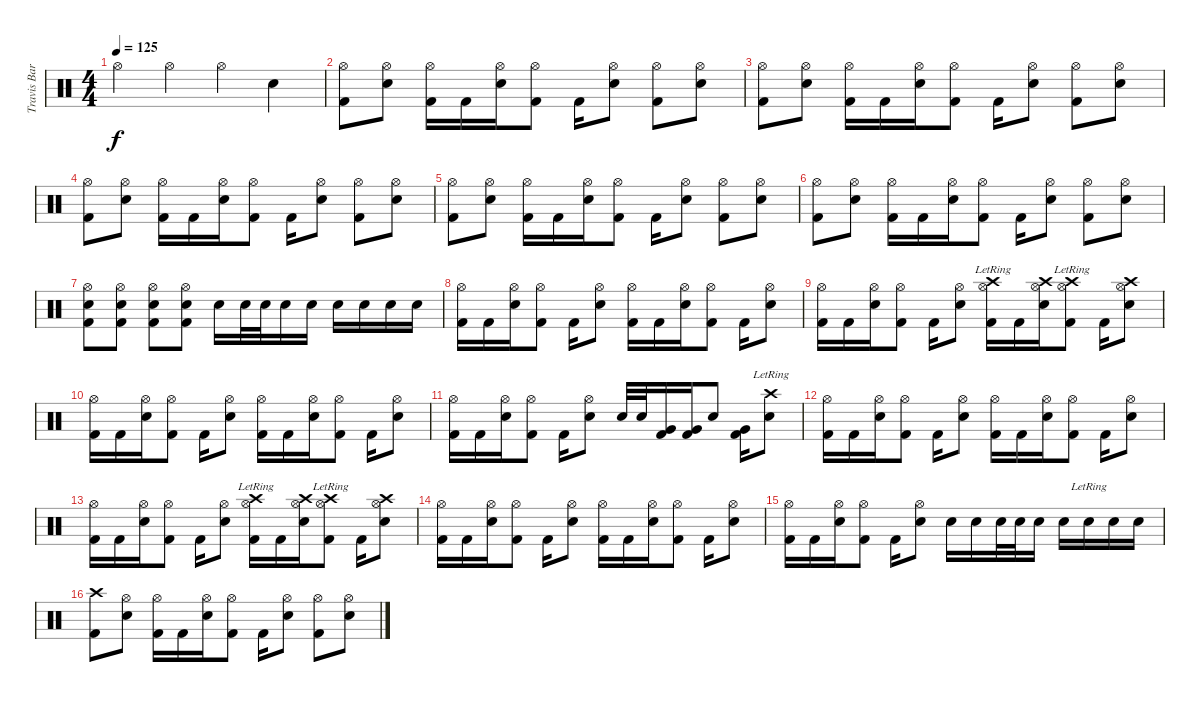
\track ("Travis Barker - Drums" "Travis Bar") {instrument percussion}
\staff {score}
\articulation defaults
\ts (4 4)
\tempo 125
\clef neutral
\ks c "Hi-Hat (open)".4{dy f} "Hi-Hat (open)".4 "Hi-Hat (open)".4 "Electric Snare (hit)".4
|
("Hi-Hat (open)" "Kick (hit) 2").8 ("Hi-Hat (open)" "Electric Snare (hit)").8 ("Hi-Hat (open)" "Kick (hit) 2").16 "Kick (hit) 2".16 ("Hi-Hat (open)" "Electric Snare (hit)").16 ("Hi-Hat (open)" "Kick (hit) 2").8 "Kick (hit) 2".16 ("Hi-Hat (open)" "Electric Snare (hit)").8 ("Hi-Hat (open)" "Kick (hit) 2").8 ("Hi-Hat (open)" "Electric Snare (hit)").8 |
("Hi-Hat (open)" "Kick (hit) 2").8 ("Hi-Hat (open)" "Electric Snare (hit)").8 ("Hi-Hat (open)" "Kick (hit) 2").16 "Kick (hit) 2".16 ("Hi-Hat (open)" "Electric Snare (hit)").16 ("Hi-Hat (open)" "Kick (hit) 2").8 "Kick (hit) 2".16 ("Hi-Hat (open)" "Electric Snare (hit)").8 ("Hi-Hat (open)" "Kick (hit) 2").8 ("Hi-Hat (open)" "Electric Snare (hit)").8 |
("Hi-Hat (open)" "Kick (hit) 2").8 ("Hi-Hat (open)" "Electric Snare (hit)").8 ("Hi-Hat (open)" "Kick (hit) 2").16 "Kick (hit) 2".16 ("Hi-Hat (open)" "Electric Snare (hit)").16 ("Hi-Hat (open)" "Kick (hit) 2").8 "Kick (hit) 2".16 ("Hi-Hat (open)" "Electric Snare (hit)").8 ("Hi-Hat (open)" "Kick (hit) 2").8 ("Hi-Hat (open)" "Electric Snare (hit)").8 |
("Hi-Hat (open)" "Kick (hit) 2").8 ("Hi-Hat (open)" "Electric Snare (hit)").8 ("Hi-Hat (open)" "Kick (hit) 2").16 "Kick (hit) 2".16 ("Hi-Hat (open)" "Electric Snare (hit)").16 ("Hi-Hat (open)" "Kick (hit) 2").8 "Kick (hit) 2".16 ("Hi-Hat (open)" "Electric Snare (hit)").8 ("Hi-Hat (open)" "Kick (hit) 2").8 ("Hi-Hat (open)" "Electric Snare (hit)").8 |
("Hi-Hat (open)" "Kick (hit) 2").8 ("Hi-Hat (open)" "Electric Snare (hit)").8 ("Hi-Hat (open)" "Kick (hit) 2").16 "Kick (hit) 2".16 ("Hi-Hat (open)" "Electric Snare (hit)").16 ("Hi-Hat (open)" "Kick (hit) 2").8 "Kick (hit) 2".16 ("Hi-Hat (open)" "Electric Snare (hit)").8 ("Hi-Hat (open)" "Kick (hit) 2").8 ("Hi-Hat (open)" "Electric Snare (hit)").8 |
("Hi-Hat (open)" "Electric Snare (hit)" "Kick (hit) 2").8 ("Hi-Hat (open)" "Electric Snare (hit)" "Kick (hit) 2").8 ("Hi-Hat (open)" "Electric Snare (hit)" "Kick (hit) 2").8 ("Hi-Hat (open)" "Electric Snare (hit)" "Kick (hit) 2").8 "Electric Snare (hit)".16 "Electric Snare (hit)".32 "Electric Snare (hit)".32 "Electric Snare (hit)".16 "Electric Snare (hit)".16 "Electric Snare (hit)".16 "Electric Snare (hit)".16 "Electric Snare (hit)".16 "Electric Snare (hit)".16 |
("Hi-Hat (open)" "Kick (hit) 2").16 "Kick (hit) 2".16 ("Hi-Hat (open)" "Electric Snare (hit)").16 ("Hi-Hat (open)" "Kick (hit) 2").8 "Kick (hit) 2".16 ("Hi-Hat (open)" "Electric Snare (hit)").8 ("Hi-Hat (open)" "Kick (hit) 2").16 "Kick (hit) 2".16 ("Hi-Hat (open)" "Electric Snare (hit)").16 ("Hi-Hat (open)" "Kick (hit) 2").8 "Kick (hit) 2".16 ("Hi-Hat (open)" "Electric Snare (hit)").8 |
("Hi-Hat (open)" "Kick (hit) 2").16 "Kick (hit) 2".16 ("Hi-Hat (open)" "Electric Snare (hit)").16 ("Hi-Hat (open)" "Kick (hit) 2").8 "Kick (hit) 2".16 ("Hi-Hat (open)" "Electric Snare (hit)").8 ("Crash high (hit)" "Hi-Hat (open)" "Kick (hit) 2"{lr}).16 "Kick (hit) 2".16 ("Crash high (hit)" "Hi-Hat (open)" "Electric Snare (hit)").16 ("Crash high (hit)" "Hi-Hat (open)" "Kick (hit) 2"{lr}).8 "Kick (hit) 2".16 ("Crash high (hit)" "Hi-Hat (open)" "Electric Snare (hit)").8 |
("Hi-Hat (open)" "Kick (hit) 2").16 "Kick (hit) 2".16 ("Hi-Hat (open)" "Electric Snare (hit)").16 ("Hi-Hat (open)" "Kick (hit) 2").8 "Kick (hit) 2".16 ("Hi-Hat (open)" "Electric Snare (hit)").8 ("Hi-Hat (open)" "Kick (hit) 2").16 "Kick (hit) 2".16 ("Hi-Hat (open)" "Electric Snare (hit)").16 ("Hi-Hat (open)" "Kick (hit) 2").8 "Kick (hit) 2".16 ("Hi-Hat (open)" "Electric Snare (hit)").8 |
("Hi-Hat (open)" "Kick (hit) 2").16 "Kick (hit) 2".16 ("Hi-Hat (open)" "Electric Snare (hit)").16 ("Hi-Hat (open)" "Kick (hit) 2").8 "Kick (hit) 2".16 ("Hi-Hat (open)" "Electric Snare (hit)").8 "Electric Snare (hit)".32 "Electric Snare (hit)".32 ("Very Low Tom (hit)" "Kick (hit) 2").16 ("Very Low Tom (hit)" "Kick (hit) 2").16 "Electric Snare (hit)".8 ("Very Low Tom (hit)" "Kick (hit) 2").16 ("Crash high (hit)" "Electric Snare (hit)"{lr}).8 |
("Hi-Hat (open)" "Kick (hit) 2").16 "Kick (hit) 2".16 ("Hi-Hat (open)" "Electric Snare (hit)").16 ("Hi-Hat (open)" "Kick (hit) 2").8 "Kick (hit) 2".16 ("Hi-Hat (open)" "Electric Snare (hit)").8 ("Hi-Hat (open)" "Kick (hit) 2").16 "Kick (hit) 2".16 ("Hi-Hat (open)" "Electric Snare (hit)").16 ("Hi-Hat (open)" "Kick (hit) 2").8 "Kick (hit) 2".16 ("Hi-Hat (open)" "Electric Snare (hit)").8 |
("Hi-Hat (open)" "Kick (hit) 2").16 "Kick (hit) 2".16 ("Hi-Hat (open)" "Electric Snare (hit)").16 ("Hi-Hat (open)" "Kick (hit) 2").8 "Kick (hit) 2".16 ("Hi-Hat (open)" "Electric Snare (hit)").8 ("Crash high (hit)" "Hi-Hat (open)" "Kick (hit) 2"{lr}).16 "Kick (hit) 2".16 ("Crash high (hit)" "Hi-Hat (open)" "Electric Snare (hit)").16 ("Crash high (hit)" "Hi-Hat (open)" "Kick (hit) 2"{lr}).8 "Kick (hit) 2".16 ("Crash high (hit)" "Hi-Hat (open)" "Electric Snare (hit)").8 |
("Hi-Hat (open)" "Kick (hit) 2").16 "Kick (hit) 2".16 ("Hi-Hat (open)" "Electric Snare (hit)").16 ("Hi-Hat (open)" "Kick (hit) 2").8 "Kick (hit) 2".16 ("Hi-Hat (open)" "Electric Snare (hit)").8 ("Hi-Hat (open)" "Kick (hit) 2").16 "Kick (hit) 2".16 ("Hi-Hat (open)" "Electric Snare (hit)").16 ("Hi-Hat (open)" "Kick (hit) 2").8 "Kick (hit) 2".16 ("Hi-Hat (open)" "Electric Snare (hit)").8 |
("Hi-Hat (open)" "Kick (hit) 2").16 "Kick (hit) 2".16 ("Hi-Hat (open)" "Electric Snare (hit)").16 ("Hi-Hat (open)" "Kick (hit) 2").8 "Kick (hit) 2".16 ("Hi-Hat (open)" "Electric Snare (hit)").8 "Electric Snare (hit)".16 "Electric Snare (hit)".16 "Electric Snare (hit)".32 "Electric Snare (hit)".32 "Electric Snare (hit)".16 "Electric Snare (hit)".16 "Electric Snare (hit)"{lr}.16 "Electric Snare (hit)".16 "Electric Snare (hit)".16 |
("Crash high (hit)" "Kick (hit) 2").8 ("Hi-Hat (open)" "Electric Snare (hit)").8 ("Hi-Hat (open)" "Kick (hit) 2").16 "Kick (hit) 2".16 ("Hi-Hat (open)" "Electric Snare (hit)").16 ("Hi-Hat (open)" "Kick (hit) 2").8 "Kick (hit) 2".16 ("Hi-Hat (open)" "Electric Snare (hit)").8 ("Hi-Hat (open)" "Kick (hit) 2").8 ("Hi-Hat (open)" "Electric Snare (hit)").8
